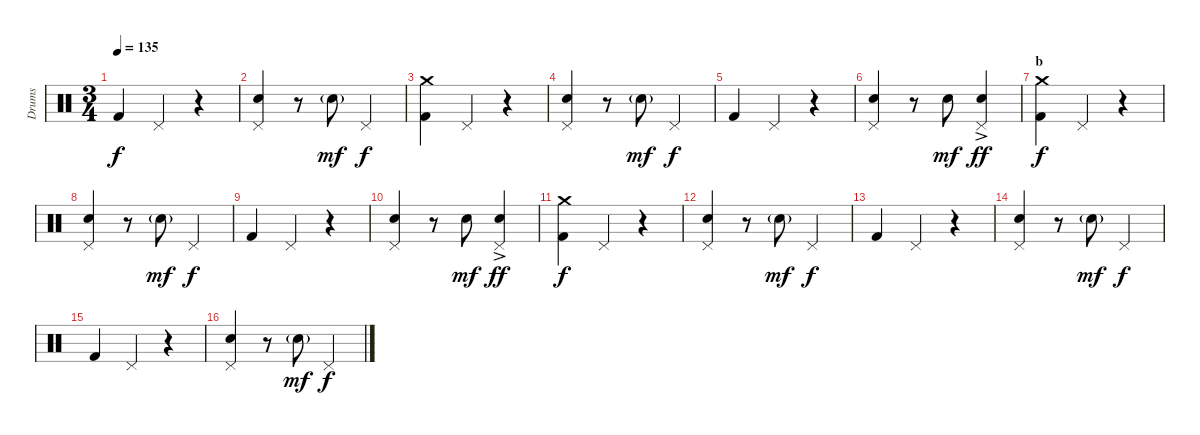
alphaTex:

\track ("Drums" "Drums") {instrument percussion}
\staff {score}
\articulation defaults
\ts (3 4)
\tempo 135
\clef neutral
\ks c "Kick (hit) 2".4{dy f} "Pedal Hi-Hat (hit)".4
r.4 |
("Pedal Hi-Hat (hit)" "Snare (hit) 2").4 r.8 "Snare (hit) 2"{g}.8{dy mf} "Pedal Hi-Hat (hit)".4{dy f} |
("Crash medium (hit)" "Kick (hit) 2").4 "Pedal Hi-Hat (hit)".4 r.4 |
("Pedal Hi-Hat (hit)" "Snare (hit) 2").4 r.8 "Snare (hit) 2"{g}.8{dy mf} "Pedal Hi-Hat (hit)".4{dy f} |
"Kick (hit) 2".4 "Pedal Hi-Hat (hit)".4 r.4 |
("Pedal Hi-Hat (hit)" "Snare (hit) 2").4 r.8 "Snare (hit) 2".8{dy mf} ("Pedal Hi-Hat (hit)" "Snare (hit) 2"{ac}).4{dy ff} |
\section ("" "b")
("Crash medium (hit)" "Kick (hit) 2").4{dy f} "Pedal Hi-Hat (hit)".4 r.4 |
("Pedal Hi-Hat (hit)" "Snare (hit) 2").4 r.8 "Snare (hit) 2"{g}.8{dy mf} "Pedal Hi-Hat (hit)".4{dy f} |
"Kick (hit) 2".4 "Pedal Hi-Hat (hit)".4 r.4 |
("Pedal Hi-Hat (hit)" "Snare (hit) 2").4 r.8 "Snare (hit) 2".8{dy mf} ("Pedal Hi-Hat (hit)" "Snare (hit) 2"{ac}).4{dy ff} |
("Crash medium (hit)" "Kick (hit) 2").4{dy f} "Pedal Hi-Hat (hit)".4 r.4 |
("Pedal Hi-Hat (hit)" "Snare (hit) 2").4 r.8 "Snare (hit) 2"{g}.8{dy mf} "Pedal Hi-Hat (hit)".4{dy f} |
"Kick (hit) 2".4 "Pedal Hi-Hat (hit)".4 r.4 |
("Pedal Hi-Hat (hit)" "Snare (hit) 2").4 r.8 "Snare (hit) 2"{g}.8{dy mf} "Pedal Hi-Hat (hit)".4{dy f} |
"Kick (hit) 2".4 "Pedal Hi-Hat (hit)".4 r.4 |
("Pedal Hi-Hat (hit)" "Snare (hit) 2").4 r.8 "Snare (hit) 2"{g}.8{dy mf} "Pedal Hi-Hat (hit)".4{dy f}
